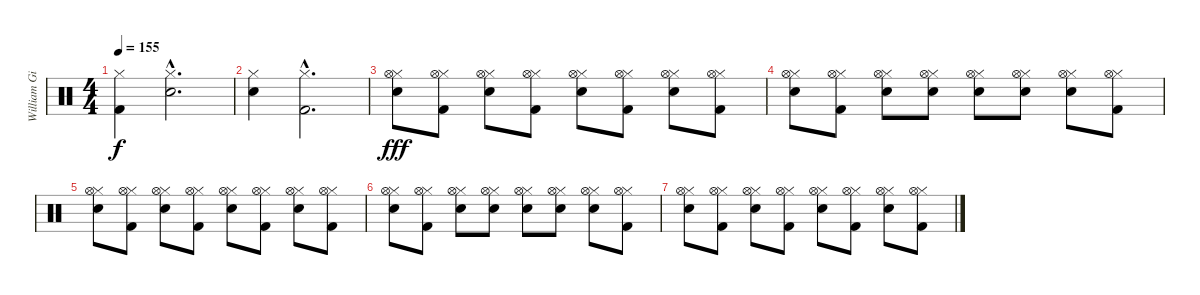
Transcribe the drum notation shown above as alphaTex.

\track ("William Gibson" "William Gi") {instrument percussion}
\staff {score}
\articulation defaults
\ts (4 4)
\tempo 155
\clef neutral
\ks c
("Hi-Hat (closed)" "Kick (hit) 2").4{dy f} ("Hi-Hat (closed)"{hac} "Electric Snare (hit)"{hac}).2{d} |
("Hi-Hat (closed)" "Electric Snare (hit)").4 ("Hi-Hat (closed)"{hac} "Kick (hit) 2"{hac}).2{d} |
("Hi-Hat (closed)" "Electric Snare (hit)" "Hi-Hat (open)").8{dy fff} ("Hi-Hat (closed)" "Kick (hit) 2" "Hi-Hat (open)").8 ("Hi-Hat (closed)" "Electric Snare (hit)" "Hi-Hat (open)").8 ("Hi-Hat (closed)" "Kick (hit) 2" "Hi-Hat (open)").8 ("Hi-Hat (closed)" "Electric Snare (hit)" "Hi-Hat (open)").8 ("Hi-Hat (closed)" "Kick (hit) 2" "Hi-Hat (open)").8 ("Hi-Hat (closed)" "Electric Snare (hit)" "Hi-Hat (open)").8 ("Hi-Hat (closed)" "Kick (hit) 2" "Hi-Hat (open)").8 |
("Hi-Hat (closed)" "Electric Snare (hit)" "Hi-Hat (open)").8 ("Hi-Hat (closed)" "Kick (hit) 2" "Hi-Hat (open)").8 ("Hi-Hat (closed)" "Electric Snare (hit)" "Hi-Hat (open)").8 ("Hi-Hat (closed)" "Electric Snare (hit)" "Hi-Hat (open)").8 ("Hi-Hat (closed)" "Electric Snare (hit)" "Hi-Hat (open)").8 ("Hi-Hat (closed)" "Electric Snare (hit)" "Hi-Hat (open)").8 ("Hi-Hat (closed)" "Electric Snare (hit)" "Hi-Hat (open)").8 ("Hi-Hat (closed)" "Kick (hit) 2" "Hi-Hat (open)").8 |
("Hi-Hat (closed)" "Electric Snare (hit)" "Hi-Hat (open)").8 ("Hi-Hat (closed)" "Kick (hit) 2" "Hi-Hat (open)").8 ("Hi-Hat (closed)" "Electric Snare (hit)" "Hi-Hat (open)").8 ("Hi-Hat (closed)" "Kick (hit) 2" "Hi-Hat (open)").8 ("Hi-Hat (closed)" "Electric Snare (hit)" "Hi-Hat (open)").8 ("Hi-Hat (closed)" "Kick (hit) 2" "Hi-Hat (open)").8 ("Hi-Hat (closed)" "Electric Snare (hit)" "Hi-Hat (open)").8 ("Hi-Hat (closed)" "Kick (hit) 2" "Hi-Hat (open)").8 |
("Hi-Hat (closed)" "Electric Snare (hit)" "Hi-Hat (open)").8 ("Hi-Hat (closed)" "Kick (hit) 2" "Hi-Hat (open)").8 ("Hi-Hat (closed)" "Electric Snare (hit)" "Hi-Hat (open)").8 ("Hi-Hat (closed)" "Electric Snare (hit)" "Hi-Hat (open)").8 ("Hi-Hat (closed)" "Electric Snare (hit)" "Hi-Hat (open)").8 ("Hi-Hat (closed)" "Electric Snare (hit)" "Hi-Hat (open)").8 ("Hi-Hat (closed)" "Electric Snare (hit)" "Hi-Hat (open)").8 ("Hi-Hat (closed)" "Kick (hit) 2" "Hi-Hat (open)").8 |
("Hi-Hat (closed)" "Electric Snare (hit)" "Hi-Hat (open)").8 ("Hi-Hat (closed)" "Kick (hit) 2" "Hi-Hat (open)").8 ("Hi-Hat (closed)" "Electric Snare (hit)" "Hi-Hat (open)").8 ("Hi-Hat (closed)" "Kick (hit) 2" "Hi-Hat (open)").8 ("Hi-Hat (closed)" "Electric Snare (hit)" "Hi-Hat (open)").8 ("Hi-Hat (closed)" "Kick (hit) 2" "Hi-Hat (open)").8 ("Hi-Hat (closed)" "Electric Snare (hit)" "Hi-Hat (open)").8 ("Hi-Hat (closed)" "Kick (hit) 2" "Hi-Hat (open)").8
